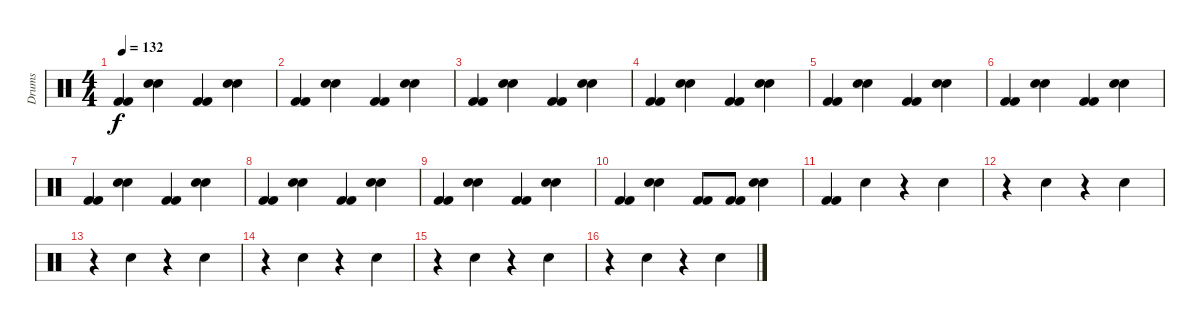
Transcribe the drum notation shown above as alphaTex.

\track ("Drums" "Drums") {instrument percussion}
\staff {score}
\articulation defaults
\ts (4 4)
\tempo 132
\clef neutral
\ks c
("Kick (hit) 2" "Kick (hit) 2").4{dy f} ("Snare (hit) 2" "Snare (hit) 2").4 ("Kick (hit) 2" "Kick (hit) 2").4 ("Snare (hit) 2" "Snare (hit) 2").4 |
("Kick (hit) 2" "Kick (hit) 2").4 ("Snare (hit) 2" "Snare (hit) 2").4 ("Kick (hit) 2" "Kick (hit) 2").4 ("Snare (hit) 2" "Snare (hit) 2").4 |
("Kick (hit) 2" "Kick (hit) 2").4 ("Snare (hit) 2" "Snare (hit) 2").4 ("Kick (hit) 2" "Kick (hit) 2").4 ("Snare (hit) 2" "Snare (hit) 2").4 |
("Kick (hit) 2" "Kick (hit) 2").4 ("Snare (hit) 2" "Snare (hit) 2").4 ("Kick (hit) 2" "Kick (hit) 2").4 ("Snare (hit) 2" "Snare (hit) 2").4 |
("Kick (hit) 2" "Kick (hit) 2").4 ("Snare (hit) 2" "Snare (hit) 2").4 ("Kick (hit) 2" "Kick (hit) 2").4 ("Snare (hit) 2" "Snare (hit) 2").4 |
("Kick (hit) 2" "Kick (hit) 2").4 ("Snare (hit) 2" "Snare (hit) 2").4 ("Kick (hit) 2" "Kick (hit) 2").4 ("Snare (hit) 2" "Snare (hit) 2").4 |
("Kick (hit) 2" "Kick (hit) 2").4 ("Snare (hit) 2" "Snare (hit) 2").4 ("Kick (hit) 2" "Kick (hit) 2").4 ("Snare (hit) 2" "Snare (hit) 2").4 |
("Kick (hit) 2" "Kick (hit) 2").4 ("Snare (hit) 2" "Snare (hit) 2").4 ("Kick (hit) 2" "Kick (hit) 2").4 ("Snare (hit) 2" "Snare (hit) 2").4 |
("Kick (hit) 2" "Kick (hit) 2").4 ("Snare (hit) 2" "Snare (hit) 2").4 ("Kick (hit) 2" "Kick (hit) 2").4 ("Snare (hit) 2" "Snare (hit) 2").4 |
("Kick (hit) 2" "Kick (hit) 2").4 ("Snare (hit) 2" "Snare (hit) 2").4 ("Kick (hit) 2" "Kick (hit) 2").8 ("Kick (hit) 2" "Kick (hit) 2").8 ("Snare (hit) 2" "Snare (hit) 2").4 |
("Kick (hit) 2" "Kick (hit) 2").4 "Snare (hit) 2".4 r.4 "Snare (hit) 2".4 |
r.4 "Snare (hit) 2".4 r.4 "Snare (hit) 2".4 |
r.4 "Snare (hit) 2".4 r.4 "Snare (hit) 2".4 |
r.4 "Snare (hit) 2".4 r.4 "Snare (hit) 2".4 |
r.4 "Snare (hit) 2".4 r.4 "Snare (hit) 2".4 |
r.4 "Snare (hit) 2".4 r.4 "Snare (hit) 2".4
